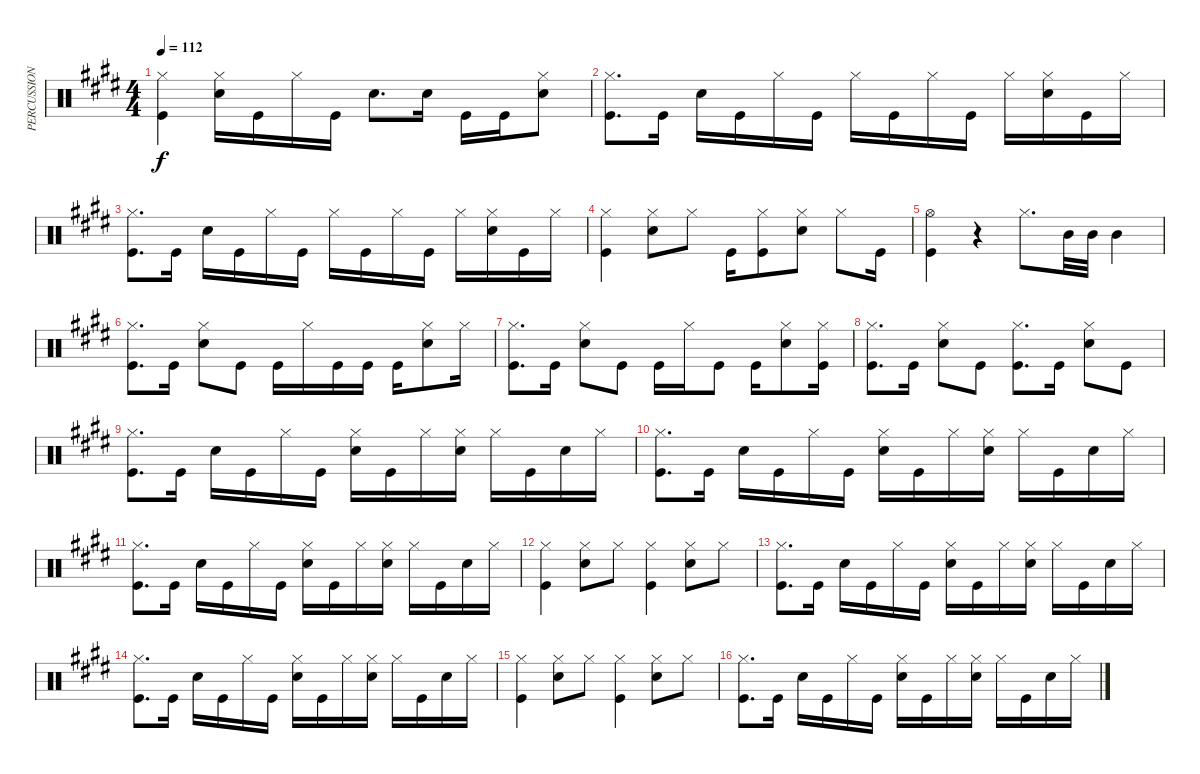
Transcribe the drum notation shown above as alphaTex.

\track ("PERCUSSION" "PERCUSSION") {instrument percussion}
\staff {score}
\articulation defaults
\ts (4 4)
\tempo 112
\clef neutral
\ks c#minor
("Hi-Hat (closed)" "Kick (hit)").4{dy f} ("Hi-Hat (closed)" "Snare (hit) 2").16 "Kick (hit)".16 "Hi-Hat (closed)".16 "Kick (hit)".16 "Snare (hit) 2".8{d} "Snare (hit) 2".16 "Kick (hit)".16 "Kick (hit)".16 ("Hi-Hat (closed)" "Snare (hit) 2").8 |
("Hi-Hat (closed)" "Kick (hit)").8{d} "Kick (hit)".16 "Snare (hit) 2".16 "Kick (hit)".16 "Hi-Hat (closed)".16 "Kick (hit)".16 "Hi-Hat (closed)".16 "Kick (hit)".16 "Hi-Hat (closed)".16 "Kick (hit)".16 "Hi-Hat (closed)".16 ("Hi-Hat (closed)" "Snare (hit) 2").16 "Kick (hit)".16 "Hi-Hat (closed)".16 |
("Hi-Hat (closed)" "Kick (hit)").8{d} "Kick (hit)".16 "Snare (hit) 2".16 "Kick (hit)".16 "Hi-Hat (closed)".16 "Kick (hit)".16 "Hi-Hat (closed)".16 "Kick (hit)".16 "Hi-Hat (closed)".16 "Kick (hit)".16 "Hi-Hat (closed)".16 ("Hi-Hat (closed)" "Snare (hit) 2").16 "Kick (hit)".16 "Hi-Hat (closed)".16 |
("Hi-Hat (closed)" "Kick (hit)").4 ("Hi-Hat (closed)" "Snare (hit) 2").8 "Hi-Hat (closed)".8 "Kick (hit)".16 ("Hi-Hat (closed)" "Kick (hit)").8 ("Hi-Hat (closed)" "Snare (hit) 2").8 "Hi-Hat (closed)".8 "Kick (hit)".16 |
("Hi-Hat (open)" "Kick (hit)").4 r.4 "Hi-Hat (closed)".8{d} "Mid Tom (hit)".32 "Mid Tom (hit)".32 "Mid Tom (hit)".4 |
("Hi-Hat (closed)" "Kick (hit)").8{d} "Kick (hit)".16 ("Hi-Hat (closed)" "Snare (hit) 2").8 "Kick (hit)".8 "Kick (hit)".16 "Hi-Hat (closed)".16 "Kick (hit)".16 "Kick (hit)".16 "Kick (hit)".16 ("Hi-Hat (closed)" "Snare (hit) 2").8 "Hi-Hat (closed)".16 |
("Hi-Hat (closed)" "Kick (hit)").8{d} "Kick (hit)".16 ("Hi-Hat (closed)" "Snare (hit) 2").8 "Kick (hit)".8 "Kick (hit)".16 "Hi-Hat (closed)".16 "Kick (hit)".8 "Kick (hit)".16 ("Hi-Hat (closed)" "Snare (hit) 2").8 ("Hi-Hat (closed)" "Kick (hit)").16 |
("Hi-Hat (closed)" "Kick (hit)").8{d} "Kick (hit)".16 ("Hi-Hat (closed)" "Snare (hit) 2").8 "Kick (hit)".8 ("Hi-Hat (closed)" "Kick (hit)").8{d} "Kick (hit)".16 ("Hi-Hat (closed)" "Snare (hit) 2").8 "Kick (hit)".8 |
("Hi-Hat (closed)" "Kick (hit)").8{d} "Kick (hit)".16 "Snare (hit) 2".16 "Kick (hit)".16 "Hi-Hat (closed)".16 "Kick (hit)".16 ("Hi-Hat (closed)" "Snare (hit) 2").16 "Kick (hit)".16 "Hi-Hat (closed)".16 ("Hi-Hat (closed)" "Snare (hit) 2").16 "Hi-Hat (closed)".16 "Kick (hit)".16 "Snare (hit) 2".16 "Hi-Hat (closed)".16 |
("Hi-Hat (closed)" "Kick (hit)").8{d} "Kick (hit)".16 "Snare (hit) 2".16 "Kick (hit)".16 "Hi-Hat (closed)".16 "Kick (hit)".16 ("Hi-Hat (closed)" "Snare (hit) 2").16 "Kick (hit)".16 "Hi-Hat (closed)".16 ("Hi-Hat (closed)" "Snare (hit) 2").16 "Hi-Hat (closed)".16 "Kick (hit)".16 "Snare (hit) 2".16 "Hi-Hat (closed)".16 |
("Hi-Hat (closed)" "Kick (hit)").8{d} "Kick (hit)".16 "Snare (hit) 2".16 "Kick (hit)".16 "Hi-Hat (closed)".16 "Kick (hit)".16 ("Hi-Hat (closed)" "Snare (hit) 2").16 "Kick (hit)".16 "Hi-Hat (closed)".16 ("Hi-Hat (closed)" "Snare (hit) 2").16 "Hi-Hat (closed)".16 "Kick (hit)".16 "Snare (hit) 2".16 "Hi-Hat (closed)".16 |
("Hi-Hat (closed)" "Kick (hit)").4 ("Hi-Hat (closed)" "Snare (hit) 2").8 "Hi-Hat (closed)".8 ("Hi-Hat (closed)" "Kick (hit)").4 ("Hi-Hat (closed)" "Snare (hit) 2").8 "Hi-Hat (closed)".8 |
("Hi-Hat (closed)" "Kick (hit)").8{d} "Kick (hit)".16 "Snare (hit) 2".16 "Kick (hit)".16 "Hi-Hat (closed)".16 "Kick (hit)".16 ("Hi-Hat (closed)" "Snare (hit) 2").16 "Kick (hit)".16 "Hi-Hat (closed)".16 ("Hi-Hat (closed)" "Snare (hit) 2").16 "Hi-Hat (closed)".16 "Kick (hit)".16 "Snare (hit) 2".16 "Hi-Hat (closed)".16 |
("Hi-Hat (closed)" "Kick (hit)").8{d} "Kick (hit)".16 "Snare (hit) 2".16 "Kick (hit)".16 "Hi-Hat (closed)".16 "Kick (hit)".16 ("Hi-Hat (closed)" "Snare (hit) 2").16 "Kick (hit)".16 "Hi-Hat (closed)".16 ("Hi-Hat (closed)" "Snare (hit) 2").16 "Hi-Hat (closed)".16 "Kick (hit)".16 "Snare (hit) 2".16 "Hi-Hat (closed)".16 |
("Hi-Hat (closed)" "Kick (hit)").4 ("Hi-Hat (closed)" "Snare (hit) 2").8 "Hi-Hat (closed)".8 ("Hi-Hat (closed)" "Kick (hit)").4 ("Hi-Hat (closed)" "Snare (hit) 2").8 "Hi-Hat (closed)".8 |
("Hi-Hat (closed)" "Kick (hit)").8{d} "Kick (hit)".16 "Snare (hit) 2".16 "Kick (hit)".16 "Hi-Hat (closed)".16 "Kick (hit)".16 ("Hi-Hat (closed)" "Snare (hit) 2").16 "Kick (hit)".16 "Hi-Hat (closed)".16 ("Hi-Hat (closed)" "Snare (hit) 2").16 "Hi-Hat (closed)".16 "Kick (hit)".16 "Snare (hit) 2".16 "Hi-Hat (closed)".16
